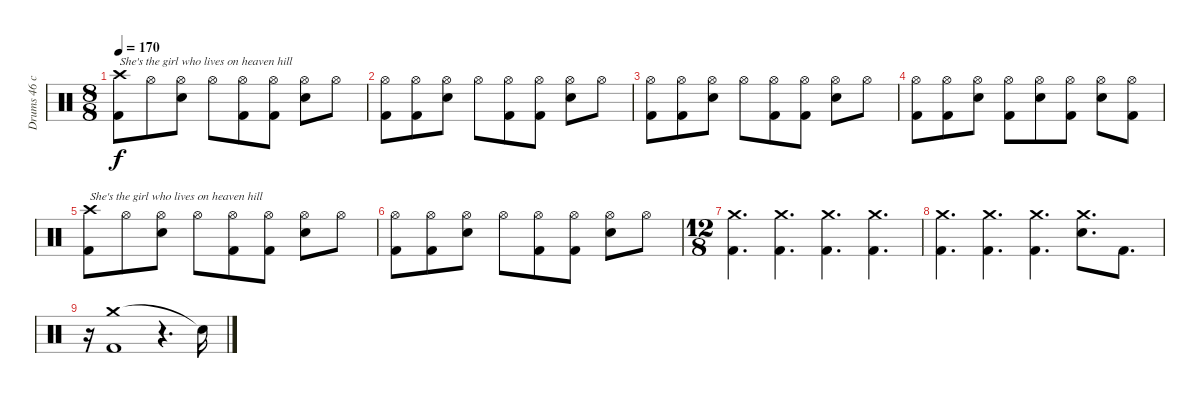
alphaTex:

\track ("Drums 46 chorus" "Drums 46 c") {mute instrument percussion}
\staff {score}
\articulation defaults
\ts (8 8)
\tempo 170
\clef neutral
\ks c
("Crash high (hit)" "Kick (hit) 2").8{txt "She's the girl who lives on heaven hill" dy f} "Hi-Hat (open)".8 ("Hi-Hat (open)" "Snare (hit) 2").8 "Hi-Hat (open)".8 ("Hi-Hat (open)" "Kick (hit) 2").8 ("Hi-Hat (open)" "Kick (hit) 2").8 ("Hi-Hat (open)" "Snare (hit) 2").8 "Hi-Hat (open)".8 |
("Hi-Hat (open)" "Kick (hit) 2").8 ("Hi-Hat (open)" "Kick (hit) 2").8 ("Hi-Hat (open)" "Snare (hit) 2").8 "Hi-Hat (open)".8 ("Hi-Hat (open)" "Kick (hit) 2").8 ("Hi-Hat (open)" "Kick (hit) 2").8 ("Hi-Hat (open)" "Snare (hit) 2").8 "Hi-Hat (open)".8 |
("Hi-Hat (open)" "Kick (hit) 2").8 ("Hi-Hat (open)" "Kick (hit) 2").8 ("Hi-Hat (open)" "Snare (hit) 2").8 "Hi-Hat (open)".8 ("Hi-Hat (open)" "Kick (hit) 2").8 ("Hi-Hat (open)" "Kick (hit) 2").8 ("Hi-Hat (open)" "Snare (hit) 2").8 "Hi-Hat (open)".8 |
("Hi-Hat (open)" "Kick (hit) 2").8 ("Hi-Hat (open)" "Kick (hit) 2").8 ("Hi-Hat (open)" "Snare (hit) 2").8 ("Hi-Hat (open)" "Kick (hit) 2").8 ("Hi-Hat (open)" "Snare (hit) 2").8 ("Hi-Hat (open)" "Kick (hit) 2").8 ("Hi-Hat (open)" "Snare (hit) 2").8 ("Hi-Hat (open)" "Kick (hit) 2").8 |
("Crash high (hit)" "Kick (hit) 2").8{txt "She's the girl who lives on heaven hill"} "Hi-Hat (open)".8 ("Hi-Hat (open)" "Snare (hit) 2").8 "Hi-Hat (open)".8 ("Hi-Hat (open)" "Kick (hit) 2").8 ("Hi-Hat (open)" "Kick (hit) 2").8 ("Hi-Hat (open)" "Snare (hit) 2").8 "Hi-Hat (open)".8 |
("Hi-Hat (open)" "Kick (hit) 2").8 ("Hi-Hat (open)" "Kick (hit) 2").8 ("Hi-Hat (open)" "Snare (hit) 2").8 "Hi-Hat (open)".8 ("Hi-Hat (open)" "Kick (hit) 2").8 ("Hi-Hat (open)" "Kick (hit) 2").8 ("Hi-Hat (open)" "Snare (hit) 2").8 "Hi-Hat (open)".8 |
\ts (12 8)
("Crash medium (hit)" "Kick (hit) 2").4{d} ("Crash medium (hit)" "Kick (hit) 2").4{d} ("Crash medium (hit)" "Kick (hit) 2").4{d} ("Crash medium (hit)" "Kick (hit) 2").4{d} |
("Crash medium (hit)" "Kick (hit) 2").4{d} ("Crash medium (hit)" "Kick (hit) 2").4{d} ("Crash medium (hit)" "Kick (hit) 2").4{d} ("Crash medium (hit)" "Snare (hit) 2").8{d} "Kick (hit) 2".8{d} |
r.16 ("Crash medium (hit)" "Kick (hit) 2").1 r.4{d} "Snare (hit)"{t}.16
